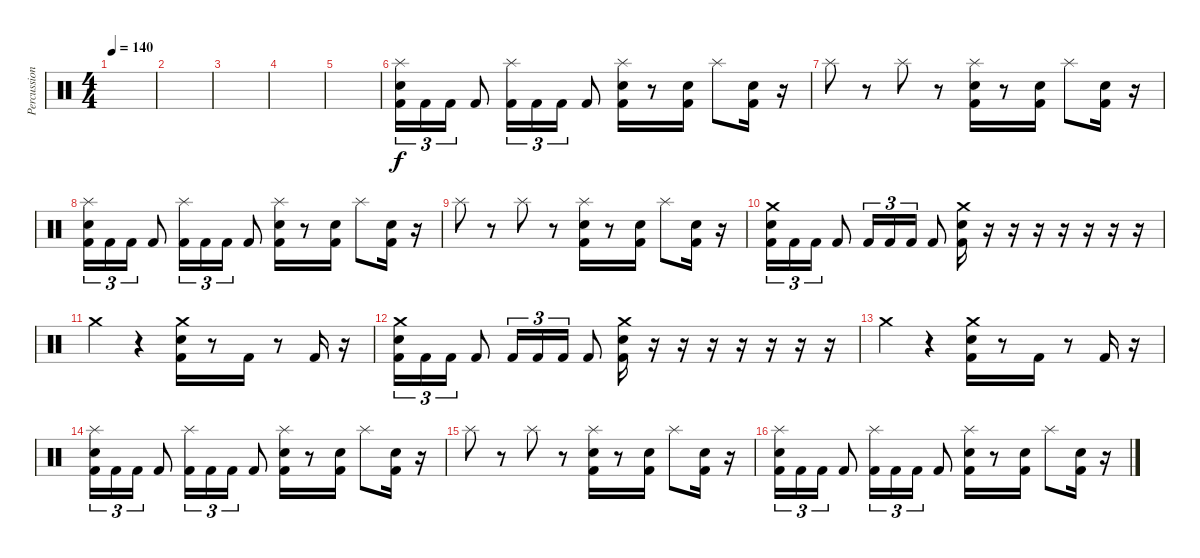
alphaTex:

\track ("Percussion" "Percussion") {instrument percussion}
\staff {score}
\articulation defaults
\ts (4 4)
\tempo 140
\clef neutral
\ks c
|
|
|
|
|
("Splash (hit)" "Snare (hit) 2" "Kick (hit) 2").16{tu (3 2)} "Kick (hit) 2".16{tu (3 2)} "Kick (hit) 2".16{tu (3 2)} "Kick (hit) 2".8 ("Splash (hit)" "Kick (hit) 2").16{tu (3 2)} "Kick (hit) 2".16{tu (3 2)} "Kick (hit) 2".16{tu (3 2)} "Kick (hit) 2".8 ("Splash (hit)" "Snare (hit) 2" "Kick (hit) 2").16 r.8 ("Snare (hit) 2" "Kick (hit) 2").16 "Splash (hit)".8 ("Snare (hit) 2" "Kick (hit) 2").16 r.16 |
"Splash (hit)".8 r.8 "Splash (hit)".8 r.8 ("Splash (hit)" "Snare (hit) 2" "Kick (hit) 2").16 r.8 ("Snare (hit) 2" "Kick (hit) 2").16 "Splash (hit)".8 ("Snare (hit) 2" "Kick (hit) 2").16 r.16 |
("Splash (hit)" "Snare (hit) 2" "Kick (hit) 2").16{tu (3 2)} "Kick (hit) 2".16{tu (3 2)} "Kick (hit) 2".16{tu (3 2)} "Kick (hit) 2".8 ("Splash (hit)" "Kick (hit) 2").16{tu (3 2)} "Kick (hit) 2".16{tu (3 2)} "Kick (hit) 2".16{tu (3 2)} "Kick (hit) 2".8 ("Splash (hit)" "Snare (hit) 2" "Kick (hit) 2").16 r.8 ("Snare (hit) 2" "Kick (hit) 2").16 "Splash (hit)".8 ("Snare (hit) 2" "Kick (hit) 2").16 r.16 |
"Splash (hit)".8 r.8 "Splash (hit)".8 r.8 ("Splash (hit)" "Snare (hit) 2" "Kick (hit) 2").16 r.8 ("Snare (hit) 2" "Kick (hit) 2").16 "Splash (hit)".8 ("Snare (hit) 2" "Kick (hit) 2").16 r.16 |
("Crash medium (hit)" "Snare (hit) 2" "Kick (hit) 2").16{tu (3 2)} "Kick (hit) 2".16{tu (3 2)} "Kick (hit) 2".16{tu (3 2)} "Kick (hit) 2".8 "Kick (hit) 2".16{tu (3 2)} "Kick (hit) 2".16{tu (3 2)} "Kick (hit) 2".16{tu (3 2)} "Kick (hit) 2".8 ("Crash medium (hit)" "Snare (hit) 2" "Kick (hit) 2").16 r.16 r.16 r.16 r.16 r.16 r.16 r.16 |
"Crash medium (hit)".4 r.4 ("Crash medium (hit)" "Snare (hit) 2" "Kick (hit) 2").16 r.8 "Kick (hit) 2".16 r.8 "Kick (hit) 2".16 r.16 |
("Crash medium (hit)" "Snare (hit) 2" "Kick (hit) 2").16{tu (3 2)} "Kick (hit) 2".16{tu (3 2)} "Kick (hit) 2".16{tu (3 2)} "Kick (hit) 2".8 "Kick (hit) 2".16{tu (3 2)} "Kick (hit) 2".16{tu (3 2)} "Kick (hit) 2".16{tu (3 2)} "Kick (hit) 2".8 ("Crash medium (hit)" "Snare (hit) 2" "Kick (hit) 2").16 r.16 r.16 r.16 r.16 r.16 r.16 r.16 |
"Crash medium (hit)".4 r.4 ("Crash medium (hit)" "Snare (hit) 2" "Kick (hit) 2").16 r.8 "Kick (hit) 2".16 r.8 "Kick (hit) 2".16 r.16 |
("Splash (hit)" "Snare (hit) 2" "Kick (hit) 2").16{tu (3 2)} "Kick (hit) 2".16{tu (3 2)} "Kick (hit) 2".16{tu (3 2)} "Kick (hit) 2".8 ("Splash (hit)" "Kick (hit) 2").16{tu (3 2)} "Kick (hit) 2".16{tu (3 2)} "Kick (hit) 2".16{tu (3 2)} "Kick (hit) 2".8 ("Splash (hit)" "Snare (hit) 2" "Kick (hit) 2").16 r.8 ("Snare (hit) 2" "Kick (hit) 2").16 "Splash (hit)".8 ("Snare (hit) 2" "Kick (hit) 2").16 r.16 |
"Splash (hit)".8 r.8 "Splash (hit)".8 r.8 ("Splash (hit)" "Snare (hit) 2" "Kick (hit) 2").16 r.8 ("Snare (hit) 2" "Kick (hit) 2").16 "Splash (hit)".8 ("Snare (hit) 2" "Kick (hit) 2").16 r.16 |
("Splash (hit)" "Snare (hit) 2" "Kick (hit) 2").16{tu (3 2)} "Kick (hit) 2".16{tu (3 2)} "Kick (hit) 2".16{tu (3 2)} "Kick (hit) 2".8 ("Splash (hit)" "Kick (hit) 2").16{tu (3 2)} "Kick (hit) 2".16{tu (3 2)} "Kick (hit) 2".16{tu (3 2)} "Kick (hit) 2".8 ("Splash (hit)" "Snare (hit) 2" "Kick (hit) 2").16 r.8 ("Snare (hit) 2" "Kick (hit) 2").16 "Splash (hit)".8 ("Snare (hit) 2" "Kick (hit) 2").16 r.16
